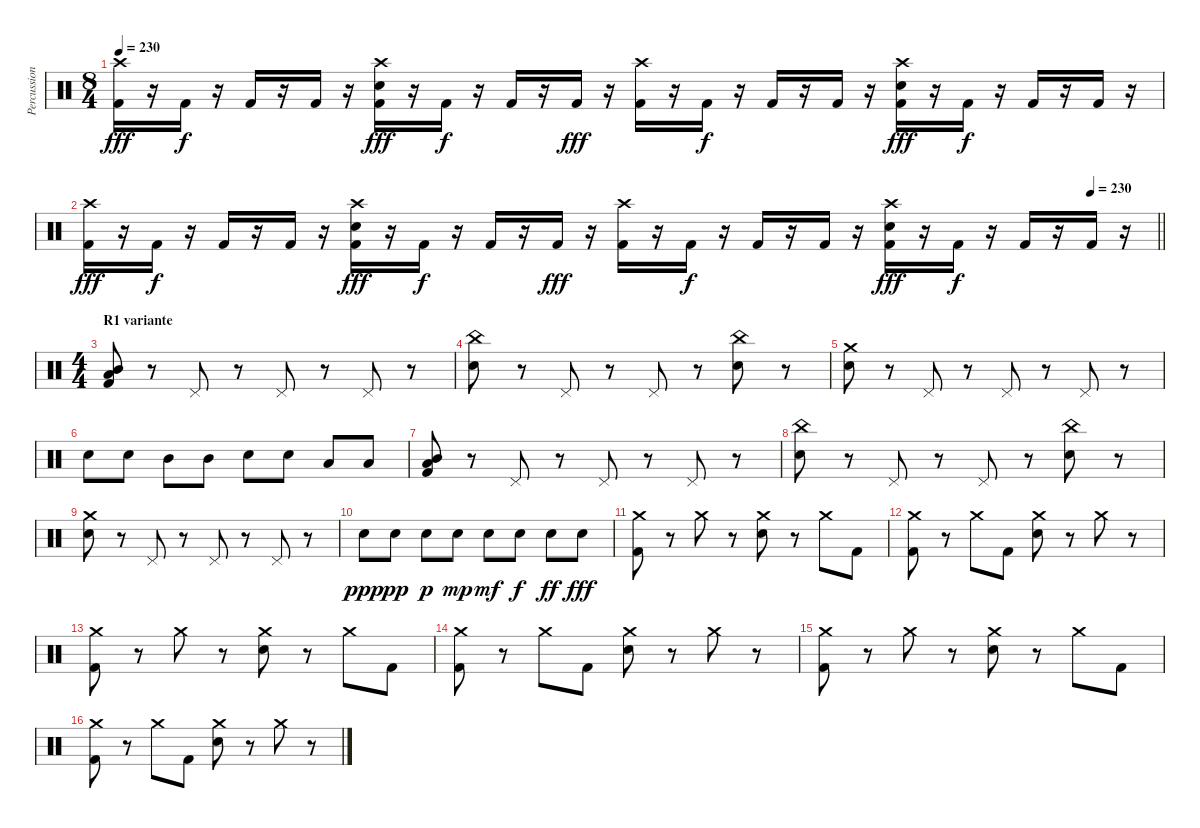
\track ("Percussions" "Percussion") {instrument percussion}
\staff {score}
\articulation defaults
\ts (8 4)
\tempo 230
\clef neutral
\ks c
("Crash high (hit)" "Kick (hit) 2").16{dy fff} r.16 "Kick (hit) 2".16{dy f} r.16 "Kick (hit) 2".16 r.16 "Kick (hit) 2".16 r.16 ("Crash high (hit)" "Electric Snare (hit)" "Kick (hit) 2").16{dy fff} r.16 "Kick (hit) 2".16{dy f} r.16 "Kick (hit) 2".16 r.16 "Kick (hit) 2".16{dy fff} r.16 ("Crash high (hit)" "Kick (hit) 2").16 r.16 "Kick (hit) 2".16{dy f} r.16 "Kick (hit) 2".16 r.16 "Kick (hit) 2".16 r.16 ("Crash high (hit)" "Electric Snare (hit)" "Kick (hit) 2").16{dy fff} r.16 "Kick (hit) 2".16{dy f} r.16 "Kick (hit) 2".16 r.16 "Kick (hit) 2".16 r.16 |
\tempo (230 0.9375)
\barLineRight lightlight
("Crash high (hit)" "Kick (hit) 2").16{dy fff} r.16 "Kick (hit) 2".16{dy f} r.16 "Kick (hit) 2".16 r.16 "Kick (hit) 2".16 r.16 ("Crash high (hit)" "Electric Snare (hit)" "Kick (hit) 2").16{dy fff} r.16 "Kick (hit) 2".16{dy f} r.16 "Kick (hit) 2".16 r.16 "Kick (hit) 2".16{dy fff} r.16 ("Crash high (hit)" "Kick (hit) 2").16 r.16 "Kick (hit) 2".16{dy f} r.16 "Kick (hit) 2".16 r.16 "Kick (hit) 2".16 r.16 ("Crash high (hit)" "Electric Snare (hit)" "Kick (hit) 2").16{dy fff} r.16 "Kick (hit) 2".16{dy f} r.16 "Kick (hit) 2".16 r.16 "Kick (hit) 2".16 r.16 |
\ts (4 4)
\section ("" "R1 variante")
("Kick (hit) 2" "Low Tom (hit)" "Mid Tom (hit)").8 r.8 "Pedal Hi-Hat (hit)".8 r.8 "Pedal Hi-Hat (hit)".8 r.8 "Pedal Hi-Hat (hit)".8 r.8 |
("Electric Snare (hit)" "China (hit)").8 r.8 "Pedal Hi-Hat (hit)".8 r.8 "Pedal Hi-Hat (hit)".8 r.8 ("Electric Snare (hit)" "China (hit)").8 r.8 |
("Electric Snare (hit)" "Crash medium (hit)").8 r.8 "Pedal Hi-Hat (hit)".8 r.8 "Pedal Hi-Hat (hit)".8 r.8 "Pedal Hi-Hat (hit)".8 r.8 |
"Electric Snare (hit)".8 "Electric Snare (hit)".8 "Mid Tom (hit)".8 "Mid Tom (hit)".8 "Electric Snare (hit)".8 "Electric Snare (hit)".8 "Low Tom (hit)".8 "Low Tom (hit)".8 |
("Kick (hit) 2" "Low Tom (hit)" "Mid Tom (hit)").8 r.8 "Pedal Hi-Hat (hit)".8 r.8 "Pedal Hi-Hat (hit)".8 r.8 "Pedal Hi-Hat (hit)".8 r.8 |
("Electric Snare (hit)" "China (hit)").8 r.8 "Pedal Hi-Hat (hit)".8 r.8 "Pedal Hi-Hat (hit)".8 r.8 ("Electric Snare (hit)" "China (hit)").8 r.8 |
("Electric Snare (hit)" "Crash medium (hit)").8 r.8 "Pedal Hi-Hat (hit)".8 r.8 "Pedal Hi-Hat (hit)".8 r.8 "Pedal Hi-Hat (hit)".8 r.8 |
"Electric Snare (hit)".8{dy ppp} "Electric Snare (hit)".8{dy pp} "Electric Snare (hit)".8{dy p} "Electric Snare (hit)".8{dy mp} "Electric Snare (hit)".8{dy mf} "Electric Snare (hit)".8{dy f} "Electric Snare (hit)".8{dy ff} "Electric Snare (hit)".8{dy fff} |
("Crash medium (hit)" "Kick (hit) 2").8 r.8 "Crash medium (hit)".8 r.8 ("Crash medium (hit)" "Electric Snare (hit)").8 r.8 "Crash medium (hit)".8 "Kick (hit) 2".8 |
("Crash medium (hit)" "Kick (hit) 2").8 r.8 "Crash medium (hit)".8 "Kick (hit) 2".8 ("Crash medium (hit)" "Electric Snare (hit)").8 r.8 "Crash medium (hit)".8 r.8 |
("Crash medium (hit)" "Kick (hit) 2").8 r.8 "Crash medium (hit)".8 r.8 ("Crash medium (hit)" "Electric Snare (hit)").8 r.8 "Crash medium (hit)".8 "Kick (hit) 2".8 |
("Crash medium (hit)" "Kick (hit) 2").8 r.8 "Crash medium (hit)".8 "Kick (hit) 2".8 ("Crash medium (hit)" "Electric Snare (hit)").8 r.8 "Crash medium (hit)".8 r.8 |
("Crash medium (hit)" "Kick (hit) 2").8 r.8 "Crash medium (hit)".8 r.8 ("Crash medium (hit)" "Electric Snare (hit)").8 r.8 "Crash medium (hit)".8 "Kick (hit) 2".8 |
("Crash medium (hit)" "Kick (hit) 2").8 r.8 "Crash medium (hit)".8 "Kick (hit) 2".8 ("Crash medium (hit)" "Electric Snare (hit)").8 r.8 "Crash medium (hit)".8 r.8
